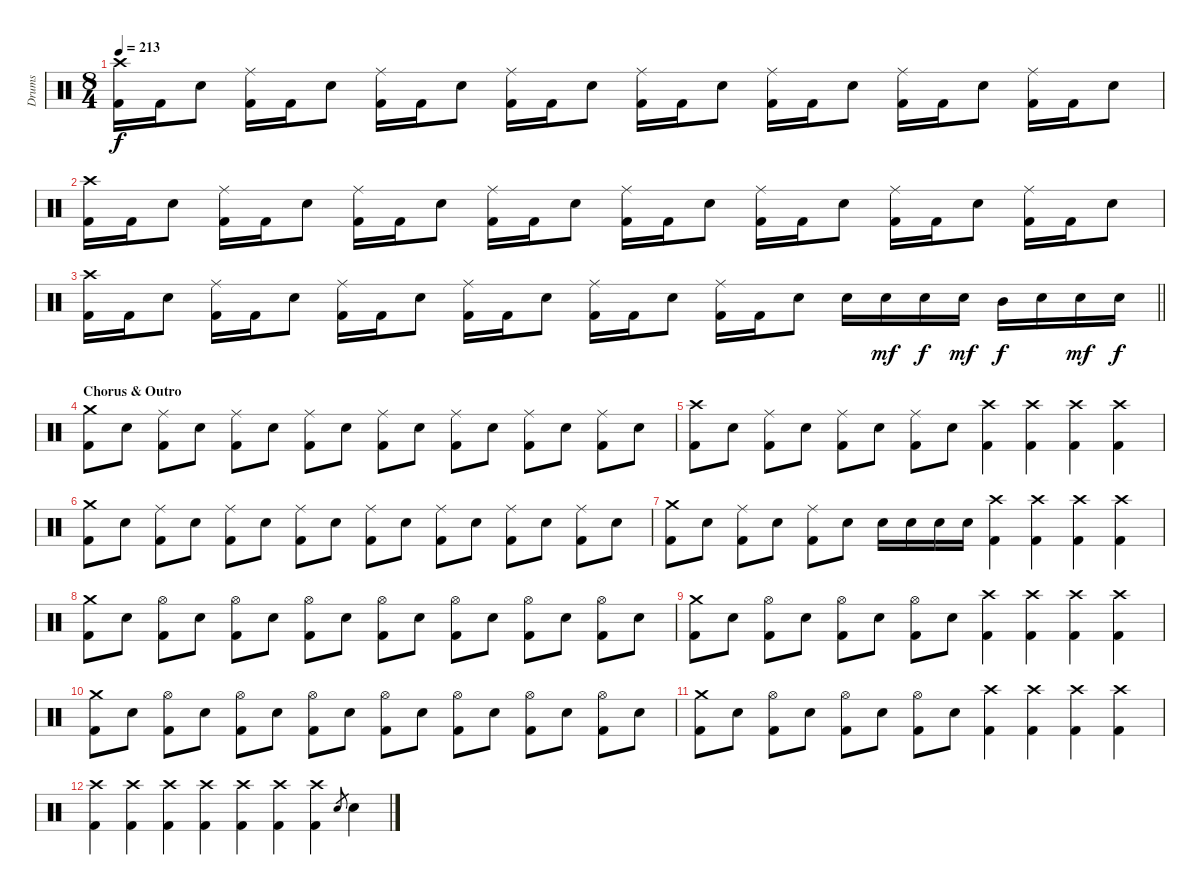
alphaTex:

\track ("Drums" "Drums") {instrument percussion}
\staff {score}
\articulation defaults
\ts (8 4)
\tempo 213
\clef neutral
\ks c
("Crash high (hit)" "Kick (hit) 2").16{dy f} "Kick (hit) 2".16 "Snare (hit) 2".8 ("Ride (middle)" "Kick (hit) 2").16 "Kick (hit) 2".16 "Snare (hit) 2".8 ("Ride (middle)" "Kick (hit) 2").16 "Kick (hit) 2".16 "Snare (hit) 2".8 ("Ride (middle)" "Kick (hit) 2").16 "Kick (hit) 2".16 "Snare (hit) 2".8 ("Ride (middle)" "Kick (hit) 2").16 "Kick (hit) 2".16 "Snare (hit) 2".8 ("Ride (middle)" "Kick (hit) 2").16 "Kick (hit) 2".16 "Snare (hit) 2".8 ("Ride (middle)" "Kick (hit) 2").16 "Kick (hit) 2".16 "Snare (hit) 2".8 ("Ride (middle)" "Kick (hit) 2").16 "Kick (hit) 2".16 "Snare (hit) 2".8 |
("Crash high (hit)" "Kick (hit) 2").16 "Kick (hit) 2".16 "Snare (hit) 2".8 ("Ride (middle)" "Kick (hit) 2").16 "Kick (hit) 2".16 "Snare (hit) 2".8 ("Ride (middle)" "Kick (hit) 2").16 "Kick (hit) 2".16 "Snare (hit) 2".8 ("Ride (middle)" "Kick (hit) 2").16 "Kick (hit) 2".16 "Snare (hit) 2".8 ("Ride (middle)" "Kick (hit) 2").16 "Kick (hit) 2".16 "Snare (hit) 2".8 ("Ride (middle)" "Kick (hit) 2").16 "Kick (hit) 2".16 "Snare (hit) 2".8 ("Ride (middle)" "Kick (hit) 2").16 "Kick (hit) 2".16 "Snare (hit) 2".8 ("Ride (middle)" "Kick (hit) 2").16 "Kick (hit) 2".16 "Snare (hit) 2".8 |
\barLineRight lightlight
("Crash high (hit)" "Kick (hit) 2").16 "Kick (hit) 2".16 "Snare (hit) 2".8 ("Ride (middle)" "Kick (hit) 2").16 "Kick (hit) 2".16 "Snare (hit) 2".8 ("Ride (middle)" "Kick (hit) 2").16 "Kick (hit) 2".16 "Snare (hit) 2".8 ("Ride (middle)" "Kick (hit) 2").16 "Kick (hit) 2".16 "Snare (hit) 2".8 ("Ride (middle)" "Kick (hit) 2").16 "Kick (hit) 2".16 "Snare (hit) 2".8 ("Ride (middle)" "Kick (hit) 2").16 "Kick (hit) 2".16 "Snare (hit) 2".8 "Snare (hit) 2".16 "Snare (hit) 2".16{dy mf} "Snare (hit) 2".16{dy f} "Snare (hit) 2".16{dy mf} "Mid Tom (hit)".16{dy f} "Snare (hit) 2".16 "Snare (hit) 2".16{dy mf} "Snare (hit) 2".16{dy f} |
\section ("" "Chorus & Outro")
("Crash medium (hit)" "Kick (hit) 2").8 "Snare (hit) 2".8 ("Ride (middle)" "Kick (hit) 2").8 "Snare (hit) 2".8 ("Ride (middle)" "Kick (hit) 2").8 "Snare (hit) 2".8 ("Ride (middle)" "Kick (hit) 2").8 "Snare (hit) 2".8 ("Ride (middle)" "Kick (hit) 2").8 "Snare (hit) 2".8 ("Ride (middle)" "Kick (hit) 2").8 "Snare (hit) 2".8 ("Ride (middle)" "Kick (hit) 2").8 "Snare (hit) 2".8 ("Ride (middle)" "Kick (hit) 2").8 "Snare (hit) 2".8 |
("Crash high (hit)" "Kick (hit) 2").8 "Snare (hit) 2".8 ("Ride (middle)" "Kick (hit) 2").8 "Snare (hit) 2".8 ("Ride (middle)" "Kick (hit) 2").8 "Snare (hit) 2".8 ("Ride (middle)" "Kick (hit) 2").8 "Snare (hit) 2".8 ("Crash high (hit)" "Kick (hit) 2").4 ("Crash high (hit)" "Kick (hit) 2").4 ("Crash high (hit)" "Kick (hit) 2").4 ("Crash high (hit)" "Kick (hit) 2").4 |
("Crash medium (hit)" "Kick (hit) 2").8 "Snare (hit) 2".8 ("Ride (middle)" "Kick (hit) 2").8 "Snare (hit) 2".8 ("Ride (middle)" "Kick (hit) 2").8 "Snare (hit) 2".8 ("Ride (middle)" "Kick (hit) 2").8 "Snare (hit) 2".8 ("Ride (middle)" "Kick (hit) 2").8 "Snare (hit) 2".8 ("Ride (middle)" "Kick (hit) 2").8 "Snare (hit) 2".8 ("Ride (middle)" "Kick (hit) 2").8 "Snare (hit) 2".8 ("Ride (middle)" "Kick (hit) 2").8 "Snare (hit) 2".8 |
("Crash medium (hit)" "Kick (hit) 2").8 "Snare (hit) 2".8 ("Ride (middle)" "Kick (hit) 2").8 "Snare (hit) 2".8 ("Ride (middle)" "Kick (hit) 2").8 "Snare (hit) 2".8 "Snare (hit) 2".16 "Snare (hit) 2".16 "Snare (hit) 2".16 "Snare (hit) 2".16 ("Crash high (hit)" "Kick (hit) 2").4 ("Crash high (hit)" "Kick (hit) 2").4 ("Crash high (hit)" "Kick (hit) 2").4 ("Crash high (hit)" "Kick (hit) 2").4 |
("Crash medium (hit)" "Kick (hit) 2").8 "Snare (hit) 2".8 ("Hi-Hat (open)" "Kick (hit) 2").8 "Snare (hit) 2".8 ("Hi-Hat (open)" "Kick (hit) 2").8 "Snare (hit) 2".8 ("Hi-Hat (open)" "Kick (hit) 2").8 "Snare (hit) 2".8 ("Hi-Hat (open)" "Kick (hit) 2").8 "Snare (hit) 2".8 ("Hi-Hat (open)" "Kick (hit) 2").8 "Snare (hit) 2".8 ("Hi-Hat (open)" "Kick (hit) 2").8 "Snare (hit) 2".8 ("Hi-Hat (open)" "Kick (hit) 2").8 "Snare (hit) 2".8 |
("Crash medium (hit)" "Kick (hit) 2").8 "Snare (hit) 2".8 ("Hi-Hat (open)" "Kick (hit) 2").8 "Snare (hit) 2".8 ("Hi-Hat (open)" "Kick (hit) 2").8 "Snare (hit) 2".8 ("Hi-Hat (open)" "Kick (hit) 2").8 "Snare (hit) 2".8 ("Crash high (hit)" "Kick (hit) 2").4 ("Crash high (hit)" "Kick (hit) 2").4 ("Crash high (hit)" "Kick (hit) 2").4 ("Crash high (hit)" "Kick (hit) 2").4 |
("Crash medium (hit)" "Kick (hit) 2").8 "Snare (hit) 2".8 ("Hi-Hat (open)" "Kick (hit) 2").8 "Snare (hit) 2".8 ("Hi-Hat (open)" "Kick (hit) 2").8 "Snare (hit) 2".8 ("Hi-Hat (open)" "Kick (hit) 2").8 "Snare (hit) 2".8 ("Hi-Hat (open)" "Kick (hit) 2").8 "Snare (hit) 2".8 ("Hi-Hat (open)" "Kick (hit) 2").8 "Snare (hit) 2".8 ("Hi-Hat (open)" "Kick (hit) 2").8 "Snare (hit) 2".8 ("Hi-Hat (open)" "Kick (hit) 2").8 "Snare (hit) 2".8 |
("Crash medium (hit)" "Kick (hit) 2").8 "Snare (hit) 2".8 ("Hi-Hat (open)" "Kick (hit) 2").8 "Snare (hit) 2".8 ("Hi-Hat (open)" "Kick (hit) 2").8 "Snare (hit) 2".8 ("Hi-Hat (open)" "Kick (hit) 2").8 "Snare (hit) 2".8 ("Crash high (hit)" "Kick (hit) 2").4 ("Crash high (hit)" "Kick (hit) 2").4 ("Crash high (hit)" "Kick (hit) 2").4 ("Crash high (hit)" "Kick (hit) 2").4 |
("Crash high (hit)" "Kick (hit) 2").4 ("Crash high (hit)" "Kick (hit) 2").4 ("Crash high (hit)" "Kick (hit) 2").4 ("Crash high (hit)" "Kick (hit) 2").4 ("Crash high (hit)" "Kick (hit) 2").4 ("Crash high (hit)" "Kick (hit) 2").4 ("Crash high (hit)" "Kick (hit) 2").4 "Snare (hit) 2".8{gr} "Snare (hit) 2".4
